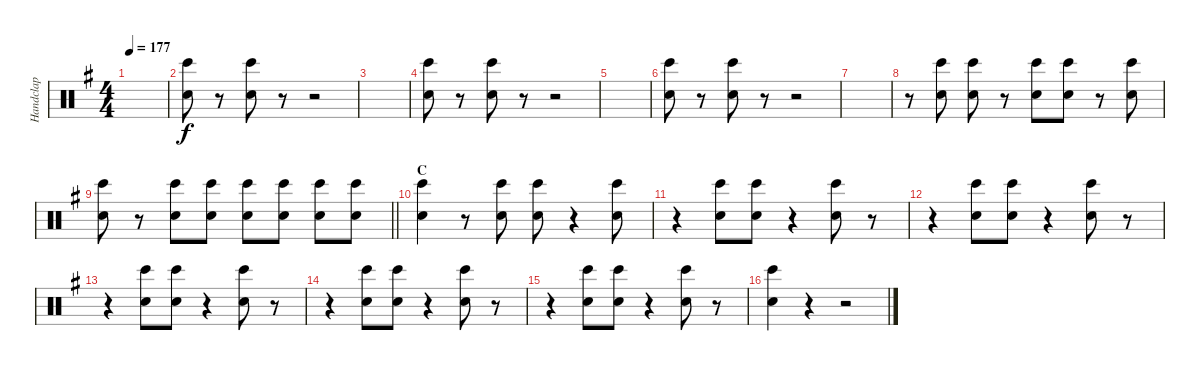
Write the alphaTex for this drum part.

\track ("Handclap" "Handclap") {instrument percussion}
\staff {score}
\articulation defaults
\ts (4 4)
\tempo 177
\clef neutral
\ks g
|
("Hand Clap (hit)" "Bongo High (hit)").8 r.8 ("Hand Clap (hit)" "Bongo High (hit)").8 r.8 r.2 |
|
("Hand Clap (hit)" "Bongo High (hit)").8 r.8 ("Hand Clap (hit)" "Bongo High (hit)").8 r.8 r.2 |
|
("Hand Clap (hit)" "Bongo High (hit)").8 r.8 ("Hand Clap (hit)" "Bongo High (hit)").8 r.8 r.2 |
|
r.8 ("Hand Clap (hit)" "Bongo High (hit)").8 ("Hand Clap (hit)" "Bongo High (hit)").8 r.8 ("Hand Clap (hit)" "Bongo High (hit)").8 ("Hand Clap (hit)" "Bongo High (hit)").8 r.8 ("Hand Clap (hit)" "Bongo High (hit)").8 |
\barLineRight lightlight
("Hand Clap (hit)" "Bongo High (hit)").8 r.8 ("Hand Clap (hit)" "Bongo High (hit)").8 ("Hand Clap (hit)" "Bongo High (hit)").8 ("Hand Clap (hit)" "Bongo High (hit)").8 ("Hand Clap (hit)" "Bongo High (hit)").8 ("Hand Clap (hit)" "Bongo High (hit)").8 ("Hand Clap (hit)" "Bongo High (hit)").8 |
\section ("" "C")
("Hand Clap (hit)" "Bongo High (hit)").4 r.8 ("Hand Clap (hit)" "Bongo High (hit)").8 ("Hand Clap (hit)" "Bongo High (hit)").8 r.4 ("Hand Clap (hit)" "Bongo High (hit)").8 |
r.4 ("Hand Clap (hit)" "Bongo High (hit)").8 ("Hand Clap (hit)" "Bongo High (hit)").8 r.4 ("Hand Clap (hit)" "Bongo High (hit)").8 r.8 |
r.4 ("Hand Clap (hit)" "Bongo High (hit)").8 ("Hand Clap (hit)" "Bongo High (hit)").8 r.4 ("Hand Clap (hit)" "Bongo High (hit)").8 r.8 |
r.4 ("Hand Clap (hit)" "Bongo High (hit)").8 ("Hand Clap (hit)" "Bongo High (hit)").8 r.4 ("Hand Clap (hit)" "Bongo High (hit)").8 r.8 |
r.4 ("Hand Clap (hit)" "Bongo High (hit)").8 ("Hand Clap (hit)" "Bongo High (hit)").8 r.4 ("Hand Clap (hit)" "Bongo High (hit)").8 r.8 |
r.4 ("Hand Clap (hit)" "Bongo High (hit)").8 ("Hand Clap (hit)" "Bongo High (hit)").8 r.4 ("Hand Clap (hit)" "Bongo High (hit)").8 r.8 |
("Hand Clap (hit)" "Bongo High (hit)").4 r.4 r.2
